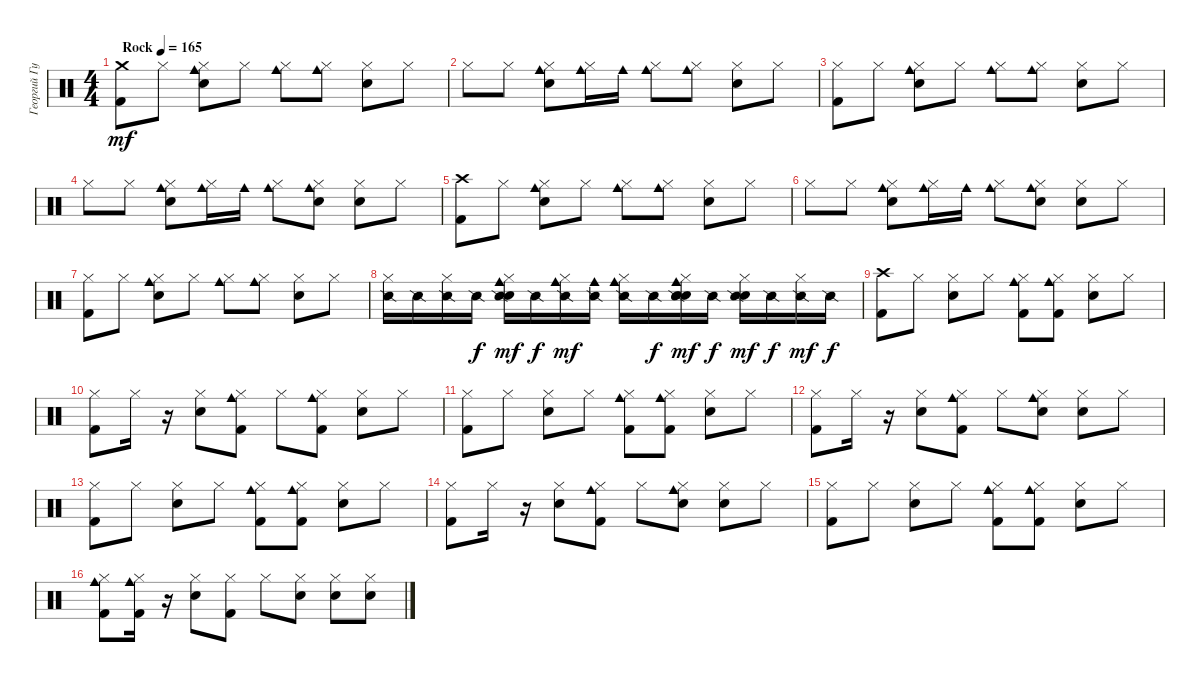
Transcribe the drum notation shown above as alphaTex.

\track ("Георгий Гурьянов" "Георгий Гу") {instrument percussion}
\staff {score}
\articulation defaults
\ts (4 4)
\tempo (165 "Rock")
\clef neutral
\ks c
("Crash medium (hit)" "Kick (hit) 2").8{dy mf} "Hi-Hat (closed)".8 ("Cowbell medium (hit)" "Snare (hit) 2" "Hi-Hat (closed)").8 "Hi-Hat (closed)".8 ("Cowbell medium (hit)" "Hi-Hat (closed)").8 ("Cowbell medium (hit)" "Hi-Hat (closed)").8 ("Snare (hit) 2" "Hi-Hat (closed)").8 "Hi-Hat (closed)".8 |
"Hi-Hat (closed)".8 "Hi-Hat (closed)".8 ("Cowbell medium (hit)" "Snare (hit) 2" "Hi-Hat (closed)").8 ("Cowbell medium (hit)" "Hi-Hat (closed)").16 "Cowbell medium (hit)".16 ("Cowbell medium (hit)" "Hi-Hat (closed)").8 ("Cowbell medium (hit)" "Hi-Hat (closed)").8 ("Snare (hit) 2" "Hi-Hat (closed)").8 "Hi-Hat (closed)".8 |
("Hi-Hat (closed)" "Kick (hit) 2").8 "Hi-Hat (closed)".8 ("Cowbell medium (hit)" "Snare (hit) 2" "Hi-Hat (closed)").8 "Hi-Hat (closed)".8 ("Cowbell medium (hit)" "Hi-Hat (closed)").8 ("Cowbell medium (hit)" "Hi-Hat (closed)").8 ("Snare (hit) 2" "Hi-Hat (closed)").8 "Hi-Hat (closed)".8 |
"Hi-Hat (closed)".8 "Hi-Hat (closed)".8 ("Cowbell medium (hit)" "Snare (hit) 2" "Hi-Hat (closed)").8 ("Cowbell medium (hit)" "Hi-Hat (closed)").16 "Cowbell medium (hit)".16 ("Cowbell medium (hit)" "Hi-Hat (closed)").8 ("Hand Clap (hit)" "Cowbell medium (hit)" "Hi-Hat (closed)").8 ("Snare (hit) 2" "Hi-Hat (closed)").8 "Hi-Hat (closed)".8 |
("Crash high (hit)" "Kick (hit) 2").8 "Hi-Hat (closed)".8 ("Cowbell medium (hit)" "Snare (hit) 2" "Hi-Hat (closed)").8 "Hi-Hat (closed)".8 ("Cowbell medium (hit)" "Hi-Hat (closed)").8 ("Cowbell medium (hit)" "Hi-Hat (closed)").8 ("Snare (hit) 2" "Hi-Hat (closed)").8 "Hi-Hat (closed)".8 |
"Hi-Hat (closed)".8 "Hi-Hat (closed)".8 ("Cowbell medium (hit)" "Snare (hit) 2" "Hi-Hat (closed)").8 ("Cowbell medium (hit)" "Hi-Hat (closed)").16 "Cowbell medium (hit)".16 ("Cowbell medium (hit)" "Hi-Hat (closed)").8 ("Cowbell medium (hit)" "Hi-Hat (closed)" "Hand Clap (hit)").8 ("Hi-Hat (closed)" "Snare (hit) 2").8 "Hi-Hat (closed)".8 |
("Hi-Hat (closed)" "Kick (hit) 2").8 "Hi-Hat (closed)".8 ("Cowbell medium (hit)" "Snare (hit) 2" "Hi-Hat (closed)").8 "Hi-Hat (closed)".8 ("Cowbell medium (hit)" "Hi-Hat (closed)").8 ("Cowbell medium (hit)" "Hi-Hat (closed)").8 ("Snare (hit) 2" "Hi-Hat (closed)").8 "Hi-Hat (closed)".8 |
("Hi-Hat (closed)" "Snare (side stick) 2").16 "Snare (side stick) 2".16 ("Hi-Hat (closed)" "Snare (side stick) 2").16 "Snare (side stick) 2".16{dy f} ("Cowbell medium (hit)" "Snare (hit) 2" "Hi-Hat (closed)" "Snare (side stick) 2").16{dy mf} "Snare (side stick) 2".16{dy f} ("Cowbell medium (hit)" "Hi-Hat (closed)" "Snare (side stick) 2").16{dy mf} ("Cowbell medium (hit)" "Snare (side stick) 2").16 ("Cowbell medium (hit)" "Hi-Hat (closed)" "Snare (side stick) 2").16 "Snare (side stick) 2".16{dy f} ("Cowbell medium (hit)" "Hi-Hat (closed)" "Hand Clap (hit)" "Snare (side stick) 2" "Hand Clap (hit)").16{dy mf} "Snare (side stick) 2".16{dy f} ("Hi-Hat (closed)" "Snare (hit) 2" "Snare (side stick) 2").16{dy mf} "Snare (side stick) 2".16{dy f} ("Hi-Hat (closed)" "Snare (side stick) 2").16{dy mf} "Snare (side stick) 2".16{dy f} |
("Crash high (hit)" "Kick (hit) 2").8 "Hi-Hat (closed)".8 ("Hi-Hat (closed)" "Snare (hit) 2").8 "Hi-Hat (closed)".8 ("Hi-Hat (closed)" "Cowbell medium (hit)" "Kick (hit) 2").8 ("Hi-Hat (closed)" "Cowbell medium (hit)" "Kick (hit) 2").8 ("Hi-Hat (closed)" "Snare (hit) 2").8 "Hi-Hat (closed)".8 |
("Hi-Hat (closed)" "Kick (hit) 2").8 "Hi-Hat (closed)".16 r.16 ("Hi-Hat (closed)" "Snare (hit) 2").8 ("Hi-Hat (closed)" "Kick (hit) 2" "Cowbell medium (hit)").8 "Hi-Hat (closed)".8 ("Hi-Hat (closed)" "Kick (hit) 2" "Cowbell medium (hit)").8 ("Hi-Hat (closed)" "Snare (hit) 2").8 "Hi-Hat (closed)".8 |
("Hi-Hat (closed)" "Kick (hit) 2").8 "Hi-Hat (closed)".8 ("Hi-Hat (closed)" "Snare (hit) 2").8 "Hi-Hat (closed)".8 ("Hi-Hat (closed)" "Cowbell medium (hit)" "Kick (hit) 2").8 ("Hi-Hat (closed)" "Cowbell medium (hit)" "Kick (hit) 2").8 ("Hi-Hat (closed)" "Snare (hit) 2").8 "Hi-Hat (closed)".8 |
("Hi-Hat (closed)" "Kick (hit) 2").8 "Hi-Hat (closed)".16 r.16 ("Hi-Hat (closed)" "Snare (hit) 2").8 ("Hi-Hat (closed)" "Kick (hit) 2" "Cowbell medium (hit)").8 "Hi-Hat (closed)".8 ("Hi-Hat (closed)" "Hand Clap (hit)" "Cowbell medium (hit)").8 ("Hi-Hat (closed)" "Snare (hit) 2").8 "Hi-Hat (closed)".8 |
("Hi-Hat (closed)" "Kick (hit) 2").8 "Hi-Hat (closed)".8 ("Hi-Hat (closed)" "Snare (hit) 2").8 "Hi-Hat (closed)".8 ("Hi-Hat (closed)" "Cowbell medium (hit)" "Kick (hit) 2").8 ("Hi-Hat (closed)" "Cowbell medium (hit)" "Kick (hit) 2").8 ("Hi-Hat (closed)" "Snare (hit) 2").8 "Hi-Hat (closed)".8 |
("Hi-Hat (closed)" "Kick (hit) 2").8 "Hi-Hat (closed)".16 r.16 ("Hi-Hat (closed)" "Snare (hit) 2").8 ("Hi-Hat (closed)" "Kick (hit) 2" "Cowbell medium (hit)").8 "Hi-Hat (closed)".8 ("Hi-Hat (closed)" "Hand Clap (hit)" "Cowbell medium (hit)").8 ("Hi-Hat (closed)" "Snare (hit) 2").8 "Hi-Hat (closed)".8 |
("Hi-Hat (closed)" "Kick (hit) 2").8 "Hi-Hat (closed)".8 ("Hi-Hat (closed)" "Snare (hit) 2").8 "Hi-Hat (closed)".8 ("Hi-Hat (closed)" "Cowbell medium (hit)" "Kick (hit) 2").8 ("Hi-Hat (closed)" "Cowbell medium (hit)" "Kick (hit) 2").8 ("Hi-Hat (closed)" "Snare (hit) 2").8 "Hi-Hat (closed)".8 |
("Cowbell medium (hit)" "Hi-Hat (closed)" "Kick (hit) 2").8 ("Cowbell medium (hit)" "Kick (hit) 2" "Hi-Hat (closed)").16 r.16 ("Hi-Hat (closed)" "Snare (hit) 2").8 ("Hi-Hat (closed)" "Kick (hit) 2").8 "Hi-Hat (closed)".8 ("Hi-Hat (closed)" "Snare (hit) 2").8 ("Hi-Hat (closed)" "Snare (hit) 2").8 ("Snare (hit) 2" "Hi-Hat (closed)").8
